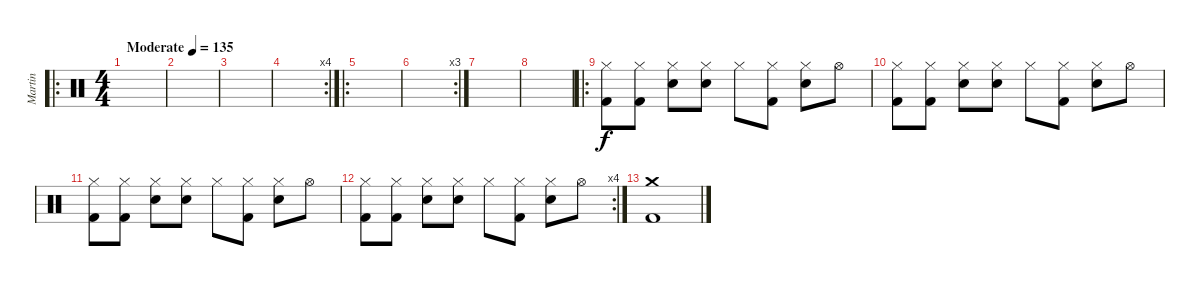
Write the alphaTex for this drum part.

\track ("Martin" "Martin") {instrument percussion}
\staff {score}
\articulation defaults
\ro
\ts (4 4)
\tempo (135 "Moderate")
\clef neutral
\ks c
|
|
|
\rc 4
|
\ro
|
\rc 3
|
|
|
\ro
("Hi-Hat (closed)" "Kick (hit) 2").8 ("Hi-Hat (closed)" "Kick (hit) 2").8 ("Hi-Hat (closed)" "Electric Snare (hit)").8 ("Hi-Hat (closed)" "Electric Snare (hit)").8 "Hi-Hat (closed)".8 ("Hi-Hat (closed)" "Kick (hit) 2").8 ("Hi-Hat (closed)" "Electric Snare (hit)").8 "Hi-Hat (open)".8 |
("Hi-Hat (closed)" "Kick (hit) 2").8 ("Hi-Hat (closed)" "Kick (hit) 2").8 ("Hi-Hat (closed)" "Electric Snare (hit)").8 ("Hi-Hat (closed)" "Electric Snare (hit)").8 "Hi-Hat (closed)".8 ("Hi-Hat (closed)" "Kick (hit) 2").8 ("Hi-Hat (closed)" "Electric Snare (hit)").8 "Hi-Hat (open)".8 |
("Hi-Hat (closed)" "Kick (hit) 2").8 ("Hi-Hat (closed)" "Kick (hit) 2").8 ("Hi-Hat (closed)" "Electric Snare (hit)").8 ("Hi-Hat (closed)" "Electric Snare (hit)").8 "Hi-Hat (closed)".8 ("Hi-Hat (closed)" "Kick (hit) 2").8 ("Hi-Hat (closed)" "Electric Snare (hit)").8 "Hi-Hat (open)".8 |
\rc 4
("Hi-Hat (closed)" "Kick (hit) 2").8 ("Hi-Hat (closed)" "Kick (hit) 2").8 ("Hi-Hat (closed)" "Electric Snare (hit)").8 ("Hi-Hat (closed)" "Electric Snare (hit)").8 "Hi-Hat (closed)".8 ("Hi-Hat (closed)" "Kick (hit) 2").8 ("Hi-Hat (closed)" "Electric Snare (hit)").8 "Hi-Hat (open)".8 |
("Crash medium (hit)" "Kick (hit) 2").1
